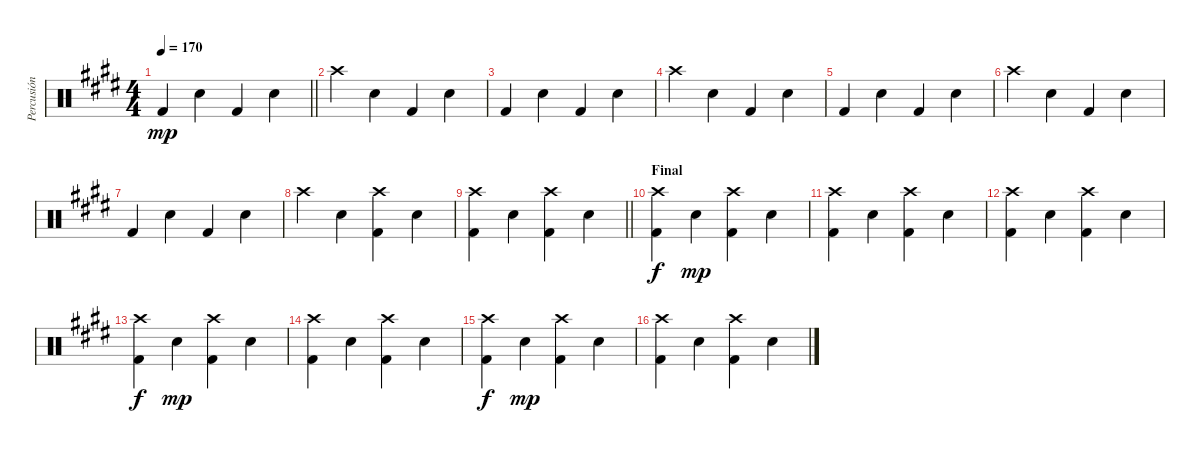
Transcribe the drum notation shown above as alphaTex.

\track ("Percusión" "Percusión") {instrument percussion}
\staff {score}
\articulation defaults
\ts (4 4)
\tempo 170
\clef neutral
\barLineRight lightlight
\ks e "Kick (hit) 2".4{dy mp} "Snare (hit) 2".4 "Kick (hit) 2".4 "Snare (hit) 2".4
|
"Crash high (hit)".4 "Snare (hit) 2".4 "Kick (hit) 2".4 "Snare (hit) 2".4 |
"Kick (hit) 2".4 "Snare (hit) 2".4 "Kick (hit) 2".4 "Snare (hit) 2".4 |
"Crash high (hit)".4 "Snare (hit) 2".4 "Kick (hit) 2".4 "Snare (hit) 2".4 |
"Kick (hit) 2".4 "Snare (hit) 2".4 "Kick (hit) 2".4 "Snare (hit) 2".4 |
"Crash high (hit)".4 "Snare (hit) 2".4 "Kick (hit) 2".4 "Snare (hit) 2".4 |
"Kick (hit) 2".4 "Snare (hit) 2".4 "Kick (hit) 2".4 "Snare (hit) 2".4 |
"Crash high (hit)".4 "Snare (hit) 2".4 ("Kick (hit) 2" "Crash high (hit)").4 "Snare (hit) 2".4 |
\barLineRight lightlight
("Kick (hit) 2" "Crash high (hit)").4 "Snare (hit) 2".4 ("Kick (hit) 2" "Crash high (hit)").4 "Snare (hit) 2".4 |
\section ("" "Final")
("Kick (hit) 2" "Crash high (hit)").4{dy f} "Snare (hit) 2".4{dy mp} ("Kick (hit) 2" "Crash high (hit)").4 "Snare (hit) 2".4 |
("Kick (hit) 2" "Crash high (hit)").4 "Snare (hit) 2".4 ("Kick (hit) 2" "Crash high (hit)").4 "Snare (hit) 2".4 |
("Kick (hit) 2" "Crash high (hit)").4 "Snare (hit) 2".4 ("Kick (hit) 2" "Crash high (hit)").4 "Snare (hit) 2".4 |
("Kick (hit) 2" "Crash high (hit)").4{dy f} "Snare (hit) 2".4{dy mp} ("Kick (hit) 2" "Crash high (hit)").4 "Snare (hit) 2".4 |
("Kick (hit) 2" "Crash high (hit)").4 "Snare (hit) 2".4 ("Kick (hit) 2" "Crash high (hit)").4 "Snare (hit) 2".4 |
("Kick (hit) 2" "Crash high (hit)").4{dy f} "Snare (hit) 2".4{dy mp} ("Kick (hit) 2" "Crash high (hit)").4 "Snare (hit) 2".4 |
("Kick (hit) 2" "Crash high (hit)").4 "Snare (hit) 2".4 ("Kick (hit) 2" "Crash high (hit)").4 "Snare (hit) 2".4
